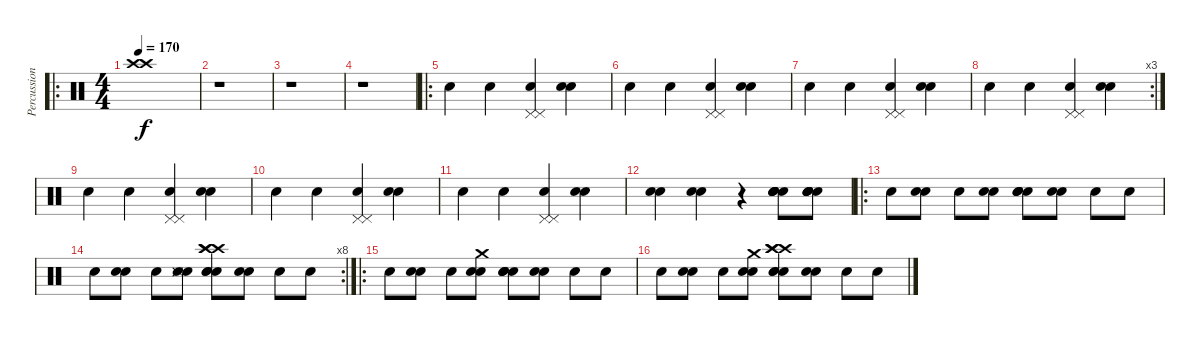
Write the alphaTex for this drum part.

\track ("Percussions" "Percussion") {instrument percussion}
\staff {score}
\articulation defaults
\ro
\ts (4 4)
\tempo 170
\clef neutral
\ks c
("Crash high (hit)" "Crash high (hit)").1{dy f} |
r.1 |
r.1 |
r.1 |
\ro "Snare (hit) 2".4 "Snare (hit) 2".4
("Snare (hit) 2" "Pedal Hi-Hat (hit)" "Pedal Hi-Hat (hit)").4 ("Snare (hit) 2" "Electric Snare (hit)").4 |
"Snare (hit) 2".4 "Snare (hit) 2".4 ("Snare (hit) 2" "Pedal Hi-Hat (hit)" "Pedal Hi-Hat (hit)").4 ("Snare (hit) 2" "Electric Snare (hit)").4 |
"Snare (hit) 2".4 "Snare (hit) 2".4 ("Snare (hit) 2" "Pedal Hi-Hat (hit)" "Pedal Hi-Hat (hit)").4 ("Snare (hit) 2" "Electric Snare (hit)").4 |
\rc 3 "Snare (hit) 2".4 "Snare (hit) 2".4
("Snare (hit) 2" "Pedal Hi-Hat (hit)" "Pedal Hi-Hat (hit)").4 ("Snare (hit) 2" "Electric Snare (hit)").4 |
"Snare (hit) 2".4 "Snare (hit) 2".4 ("Snare (hit) 2" "Pedal Hi-Hat (hit)" "Pedal Hi-Hat (hit)").4 ("Snare (hit) 2" "Electric Snare (hit)").4 |
"Snare (hit) 2".4 "Snare (hit) 2".4 ("Snare (hit) 2" "Pedal Hi-Hat (hit)" "Pedal Hi-Hat (hit)").4 ("Snare (hit) 2" "Electric Snare (hit)").4 |
"Snare (hit) 2".4 "Snare (hit) 2".4 ("Snare (hit) 2" "Pedal Hi-Hat (hit)" "Pedal Hi-Hat (hit)").4 ("Snare (hit) 2" "Electric Snare (hit)").4 |
("Snare (hit) 2" "Electric Snare (hit)").4 ("Snare (hit) 2" "Electric Snare (hit)").4 r.4 ("Snare (hit) 2" "Snare (hit) 2" "Snare (hit) 2" "Snare (hit) 2" "Electric Snare (hit)").8 ("Snare (hit) 2" "Snare (hit) 2" "Snare (hit) 2" "Snare (hit) 2" "Electric Snare (hit)").8 |
\ro "Snare (hit) 2".8
("Electric Snare (hit)" "Snare (hit) 2").8 "Snare (hit) 2".8 ("Electric Snare (hit)" "Snare (hit) 2").8 ("Electric Snare (hit)" "Electric Snare (hit)" "Electric Snare (hit)" "Snare (hit) 2").8 ("Electric Snare (hit)" "Snare (hit) 2").8 "Snare (hit) 2".8 "Snare (hit) 2".8 |
\rc 8 "Snare (hit) 2".8
("Electric Snare (hit)" "Snare (hit) 2").8 "Snare (hit) 2".8 ("Electric Snare (hit)" "Snare (hit) 2" "Snare (side stick) 3" "Snare (side stick) 3").8 ("Electric Snare (hit)" "Electric Snare (hit)" "Crash high (hit)" "Snare (hit) 2" "Crash high (hit)" "Crash high (hit)").8 ("Electric Snare (hit)" "Snare (hit) 2").8 "Snare (hit) 2".8 "Snare (hit) 2".8 |
\ro "Snare (hit) 2".8
("Electric Snare (hit)" "Snare (hit) 2").8 "Snare (hit) 2".8 ("Electric Snare (hit)" "Snare (hit) 2" "Crash medium (hit)").8 ("Electric Snare (hit)" "Electric Snare (hit)" "Electric Snare (hit)" "Snare (hit) 2").8 ("Electric Snare (hit)" "Snare (hit) 2").8 "Snare (hit) 2".8 "Snare (hit) 2".8 |
"Snare (hit) 2".8 ("Electric Snare (hit)" "Snare (hit) 2").8 "Snare (hit) 2".8 ("Electric Snare (hit)" "Snare (hit) 2" "Crash medium (hit)").8 ("Electric Snare (hit)" "Electric Snare (hit)" "Crash high (hit)" "Snare (hit) 2" "Crash high (hit)" "Crash high (hit)").8 ("Electric Snare (hit)" "Snare (hit) 2").8 "Snare (hit) 2".8 "Snare (hit) 2".8
